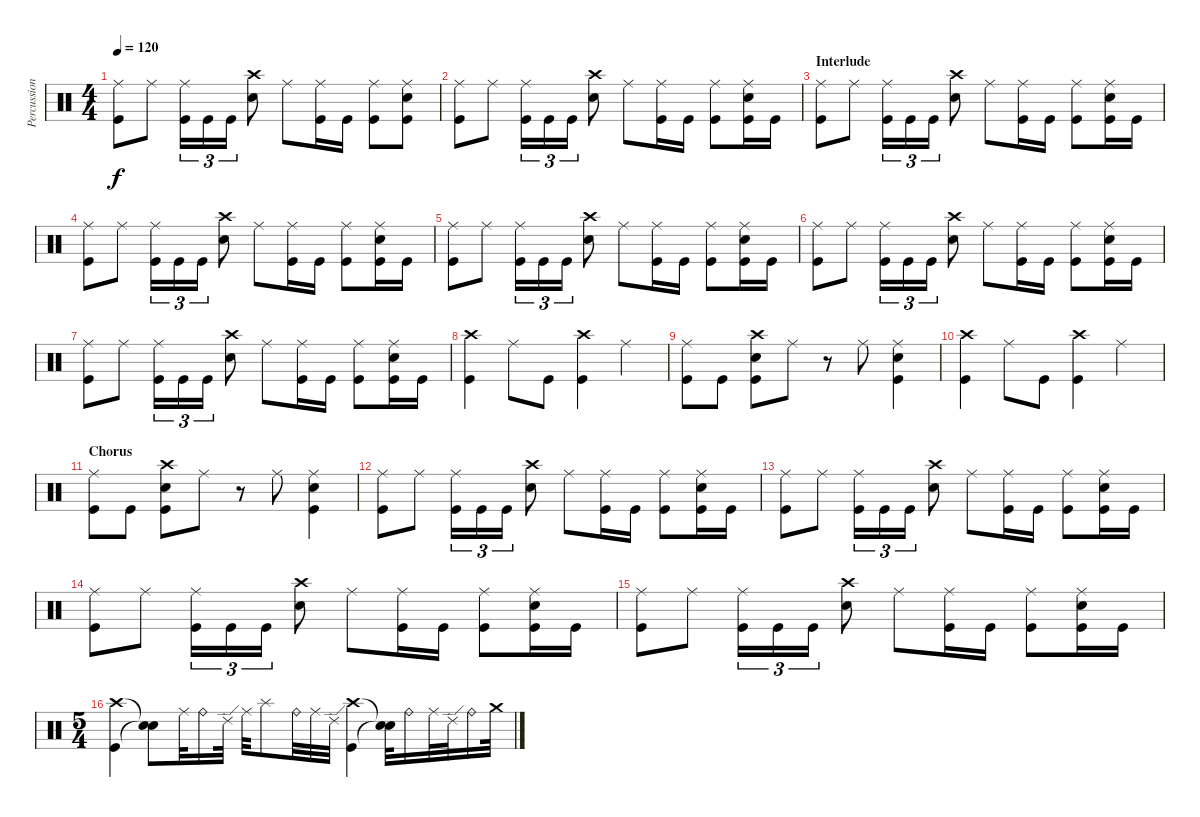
\track ("Percussion" "Percussion") {instrument percussion}
\staff {score}
\articulation defaults
\ts (4 4)
\tempo 120
\clef neutral
\ks c
("Ride (middle)" "Kick (hit)").8{dy f} "Ride (middle)".8 ("Ride (middle)" "Kick (hit)").16{tu (3 2)} "Kick (hit)".16{tu (3 2)} "Kick (hit)".16{tu (3 2)} ("Crash high (hit)" "Snare (hit) 2").8 "Ride (middle)".8 ("Ride (middle)" "Kick (hit)").16 "Kick (hit)".16 ("Ride (middle)" "Kick (hit)").8 ("Ride (middle)" "Snare (hit) 2" "Kick (hit)").8 |
("Ride (middle)" "Kick (hit)").8 "Ride (middle)".8 ("Ride (middle)" "Kick (hit)").16{tu (3 2)} "Kick (hit)".16{tu (3 2)} "Kick (hit)".16{tu (3 2)} ("Crash high (hit)" "Snare (hit) 2").8 "Ride (middle)".8 ("Ride (middle)" "Kick (hit)").16 "Kick (hit)".16 ("Ride (middle)" "Kick (hit)").8 ("Ride (middle)" "Snare (hit) 2" "Kick (hit)").16 "Kick (hit)".16 |
\section ("" "Interlude")
("Ride (middle)" "Kick (hit)").8 "Ride (middle)".8 ("Ride (middle)" "Kick (hit)").16{tu (3 2)} "Kick (hit)".16{tu (3 2)} "Kick (hit)".16{tu (3 2)} ("Crash high (hit)" "Snare (hit) 2").8 "Ride (middle)".8 ("Ride (middle)" "Kick (hit)").16 "Kick (hit)".16 ("Ride (middle)" "Kick (hit)").8 ("Ride (middle)" "Snare (hit) 2" "Kick (hit)").16 "Kick (hit)".16 |
("Ride (middle)" "Kick (hit)").8 "Ride (middle)".8 ("Ride (middle)" "Kick (hit)").16{tu (3 2)} "Kick (hit)".16{tu (3 2)} "Kick (hit)".16{tu (3 2)} ("Crash high (hit)" "Snare (hit) 2").8 "Ride (middle)".8 ("Ride (middle)" "Kick (hit)").16 "Kick (hit)".16 ("Ride (middle)" "Kick (hit)").8 ("Ride (middle)" "Snare (hit) 2" "Kick (hit)").16 "Kick (hit)".16 |
("Ride (middle)" "Kick (hit)").8 "Ride (middle)".8 ("Ride (middle)" "Kick (hit)").16{tu (3 2)} "Kick (hit)".16{tu (3 2)} "Kick (hit)".16{tu (3 2)} ("Crash high (hit)" "Snare (hit) 2").8 "Ride (middle)".8 ("Ride (middle)" "Kick (hit)").16 "Kick (hit)".16 ("Ride (middle)" "Kick (hit)").8 ("Ride (middle)" "Snare (hit) 2" "Kick (hit)").16 "Kick (hit)".16 |
("Ride (middle)" "Kick (hit)").8 "Ride (middle)".8 ("Ride (middle)" "Kick (hit)").16{tu (3 2)} "Kick (hit)".16{tu (3 2)} "Kick (hit)".16{tu (3 2)} ("Crash high (hit)" "Snare (hit) 2").8 "Ride (middle)".8 ("Ride (middle)" "Kick (hit)").16 "Kick (hit)".16 ("Ride (middle)" "Kick (hit)").8 ("Ride (middle)" "Snare (hit) 2" "Kick (hit)").16 "Kick (hit)".16 |
("Ride (middle)" "Kick (hit)").8 "Ride (middle)".8 ("Ride (middle)" "Kick (hit)").16{tu (3 2)} "Kick (hit)".16{tu (3 2)} "Kick (hit)".16{tu (3 2)} ("Crash high (hit)" "Snare (hit) 2").8 "Ride (middle)".8 ("Ride (middle)" "Kick (hit)").16 "Kick (hit)".16 ("Ride (middle)" "Kick (hit)").8 ("Ride (middle)" "Snare (hit) 2" "Kick (hit)").16 "Kick (hit)".16 |
("Crash high (hit)" "Kick (hit)").4 "Ride (middle)".8 "Kick (hit)".8 ("Crash high (hit)" "Kick (hit)").4 "Ride (middle)".4 |
("Ride (middle)" "Kick (hit)").8 "Kick (hit)".8 ("Crash high (hit)" "Snare (hit) 2" "Kick (hit)").8 "Ride (middle)".8 r.8 "Ride (middle)".8 ("Ride (middle)" "Snare (hit) 2" "Kick (hit)").4 |
("Crash high (hit)" "Kick (hit)").4 "Ride (middle)".8 "Kick (hit)".8 ("Crash high (hit)" "Kick (hit)").4 "Ride (middle)".4 |
\section ("" "Chorus")
("Ride (middle)" "Kick (hit)").8 "Kick (hit)".8 ("Crash high (hit)" "Snare (hit) 2" "Kick (hit)").8 "Ride (middle)".8 r.8 "Ride (middle)".8 ("Ride (middle)" "Snare (hit) 2" "Kick (hit)").4 |
("Ride (middle)" "Kick (hit)").8 "Ride (middle)".8 ("Ride (middle)" "Kick (hit)").16{tu (3 2)} "Kick (hit)".16{tu (3 2)} "Kick (hit)".16{tu (3 2)} ("Crash high (hit)" "Snare (hit) 2").8 "Ride (middle)".8 ("Ride (middle)" "Kick (hit)").16 "Kick (hit)".16 ("Ride (middle)" "Kick (hit)").8 ("Ride (middle)" "Snare (hit) 2" "Kick (hit)").16 "Kick (hit)".16 |
("Ride (middle)" "Kick (hit)").8 "Ride (middle)".8 ("Ride (middle)" "Kick (hit)").16{tu (3 2)} "Kick (hit)".16{tu (3 2)} "Kick (hit)".16{tu (3 2)} ("Crash high (hit)" "Snare (hit) 2").8 "Ride (middle)".8 ("Ride (middle)" "Kick (hit)").16 "Kick (hit)".16 ("Ride (middle)" "Kick (hit)").8 ("Ride (middle)" "Snare (hit) 2" "Kick (hit)").16 "Kick (hit)".16 |
("Ride (middle)" "Kick (hit)").8 "Ride (middle)".8 ("Ride (middle)" "Kick (hit)").16{tu (3 2)} "Kick (hit)".16{tu (3 2)} "Kick (hit)".16{tu (3 2)} ("Crash high (hit)" "Snare (hit) 2").8 "Ride (middle)".8 ("Ride (middle)" "Kick (hit)").16 "Kick (hit)".16 ("Ride (middle)" "Kick (hit)").8 ("Ride (middle)" "Snare (hit) 2" "Kick (hit)").16 "Kick (hit)".16 |
("Ride (middle)" "Kick (hit)").8 "Ride (middle)".8 ("Ride (middle)" "Kick (hit)").16{tu (3 2)} "Kick (hit)".16{tu (3 2)} "Kick (hit)".16{tu (3 2)} ("Crash high (hit)" "Snare (hit) 2").8 "Ride (middle)".8 ("Ride (middle)" "Kick (hit)").16 "Kick (hit)".16 ("Ride (middle)" "Kick (hit)").8 ("Ride (middle)" "Snare (hit) 2" "Kick (hit)").16 "Kick (hit)".16 |
\ts (5 4)
("Crash high (hit)" "Kick (hit)").4 ("Snare (hit)"{t} "Snare (hit)"{t}).8 "Ride (middle)".32 "Ride (bell)".16 "Ride (edge) 2".32 "Ride (middle)".32 "Splash (hit)".8 "Ride (bell)".32 "Ride (middle)".32 "Ride (edge) 2".32 ("Crash high (hit)" "Kick (hit)").4 ("Snare (hit)"{t} "Snare (hit)"{t}).32 "Ride (bell)".16 "Ride (middle)".32 "Ride (edge) 2".32 "Ride (bell)".16 "Crash medium (hit)".32
